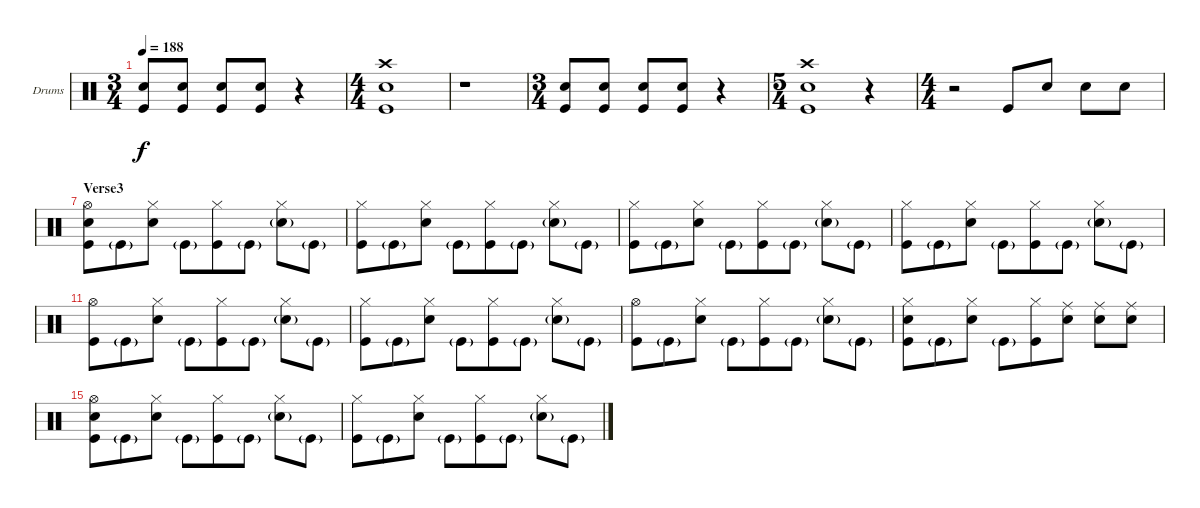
\bracketExtendMode nobrackets
\firstSystemTrackNameOrientation horizontal
\otherSystemsTrackNameOrientation horizontal
\defaultBarNumberDisplay FirstOfSystem
\track ("Drumkit" "Drums") {instrument percussion}
\staff {score}
\articulation defaults
\ts (3 4)
\tempo 188
\clef neutral
\ks c
("Kick (hit)" "Snare (hit) 2").8{dy f} ("Kick (hit)" "Snare (hit) 2").8 ("Kick (hit)" "Snare (hit) 2").8 ("Kick (hit)" "Snare (hit) 2").8 r.4 |
\ts (4 4)
("Crash high (hit)" "Kick (hit)" "Snare (hit) 2").1 |
r.1 |
\ts (3 4)
("Kick (hit)" "Snare (hit) 2").8 ("Kick (hit)" "Snare (hit) 2").8 ("Kick (hit)" "Snare (hit) 2").8 ("Kick (hit)" "Snare (hit) 2").8 r.4 |
\ts (5 4)
("Crash high (hit)" "Snare (hit) 2" "Kick (hit)").1 r.4 |
\ts (4 4)
r.2 "Kick (hit)".8 "Snare (hit) 2".8 "Snare (hit) 2".8 "Snare (hit) 2".8 |
\section ("" "Verse3")
("Kick (hit)" "Hi-Hat (open)" "Snare (hit) 2").8{beam merge} "Kick (hit)"{g}.8{beam merge} ("Snare (hit) 2" "Hi-Hat (closed)").8{beam split} "Kick (hit)"{g}.8{beam merge} ("Kick (hit)" "Hi-Hat (closed)").8 "Kick (hit)"{g}.8 ("Snare (hit) 2"{g} "Hi-Hat (closed)").8 "Kick (hit)"{g}.8 |
("Kick (hit)" "Hi-Hat (closed)").8{beam merge} "Kick (hit)"{g}.8{beam merge} ("Snare (hit) 2" "Hi-Hat (closed)").8{beam split} "Kick (hit)"{g}.8{beam merge} ("Kick (hit)" "Hi-Hat (closed)").8 "Kick (hit)"{g}.8 ("Snare (hit) 2"{g} "Hi-Hat (closed)").8 "Kick (hit)"{g}.8 |
("Kick (hit)" "Hi-Hat (closed)").8{beam merge} "Kick (hit)"{g}.8{beam merge} ("Snare (hit) 2" "Hi-Hat (closed)").8{beam split} "Kick (hit)"{g}.8{beam merge} ("Kick (hit)" "Hi-Hat (closed)").8 "Kick (hit)"{g}.8 ("Snare (hit) 2"{g} "Hi-Hat (closed)").8 "Kick (hit)"{g}.8 |
("Kick (hit)" "Hi-Hat (closed)").8{beam merge} "Kick (hit)"{g}.8{beam merge} ("Snare (hit) 2" "Hi-Hat (closed)").8{beam split} "Kick (hit)"{g}.8{beam merge} ("Kick (hit)" "Hi-Hat (closed)").8 "Kick (hit)"{g}.8 ("Snare (hit) 2"{g} "Hi-Hat (closed)").8 "Kick (hit)"{g}.8 |
("Hi-Hat (open)" "Kick (hit)").8{beam merge} "Kick (hit)"{g}.8{beam merge} ("Snare (hit) 2" "Hi-Hat (closed)").8{beam split} "Kick (hit)"{g}.8{beam merge} ("Kick (hit)" "Hi-Hat (closed)").8 "Kick (hit)"{g}.8 ("Snare (hit) 2"{g} "Hi-Hat (closed)").8 "Kick (hit)"{g}.8 |
("Kick (hit)" "Hi-Hat (closed)").8{beam merge} "Kick (hit)"{g}.8{beam merge} ("Snare (hit) 2" "Hi-Hat (closed)").8{beam split} "Kick (hit)"{g}.8{beam merge} ("Kick (hit)" "Hi-Hat (closed)").8 "Kick (hit)"{g}.8 ("Snare (hit) 2"{g} "Hi-Hat (closed)").8 "Kick (hit)"{g}.8 |
("Hi-Hat (open)" "Kick (hit)").8{beam merge} "Kick (hit)"{g}.8{beam merge} ("Snare (hit) 2" "Hi-Hat (closed)").8{beam split} "Kick (hit)"{g}.8{beam merge} ("Kick (hit)" "Hi-Hat (closed)").8 "Kick (hit)"{g}.8 ("Snare (hit) 2"{g} "Hi-Hat (closed)").8 "Kick (hit)"{g}.8 |
("Snare (hit) 2" "Kick (hit)" "Hi-Hat (closed)").8{beam merge} "Kick (hit)"{g}.8{beam merge} ("Snare (hit) 2" "Hi-Hat (closed)").8{beam split} "Kick (hit)"{g}.8{beam merge} ("Kick (hit)" "Hi-Hat (closed)").8 ("Snare (hit) 2" "Ride (middle)").8 ("Snare (hit) 2" "Ride (middle)").8 ("Snare (hit) 2" "Ride (middle)").8 |
("Kick (hit)" "Hi-Hat (open)" "Snare (hit) 2").8{beam merge} "Kick (hit)"{g}.8{beam merge} ("Snare (hit) 2" "Hi-Hat (closed)").8{beam split} "Kick (hit)"{g}.8{beam merge} ("Kick (hit)" "Hi-Hat (closed)").8 "Kick (hit)"{g}.8 ("Snare (hit) 2"{g} "Hi-Hat (closed)").8 "Kick (hit)"{g}.8 |
("Kick (hit)" "Hi-Hat (closed)").8{beam merge} "Kick (hit)"{g}.8{beam merge} ("Snare (hit) 2" "Hi-Hat (closed)").8{beam split} "Kick (hit)"{g}.8{beam merge} ("Kick (hit)" "Hi-Hat (closed)").8 "Kick (hit)"{g}.8 ("Snare (hit) 2"{g} "Hi-Hat (closed)").8 "Kick (hit)"{g}.8
